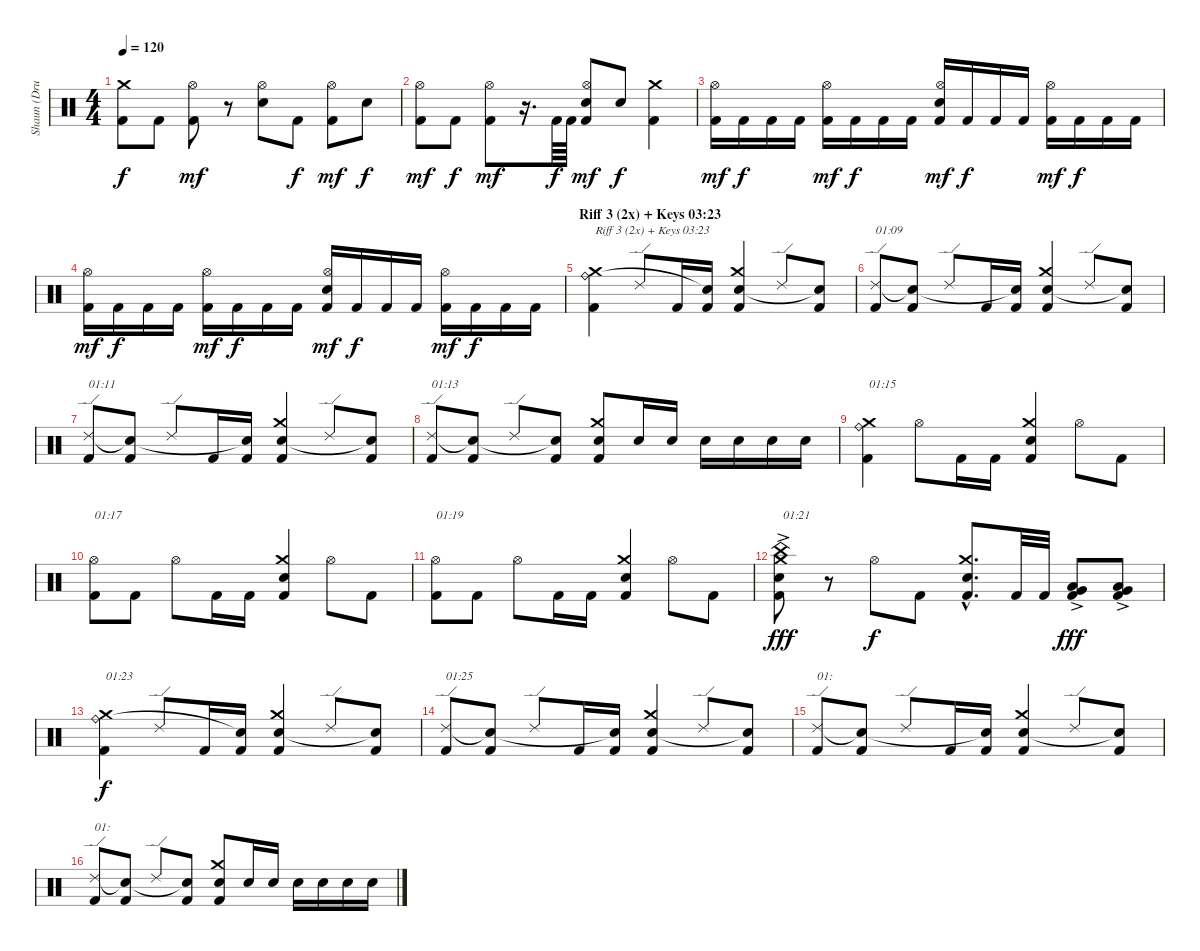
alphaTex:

\track ("Shaun (Drums Of DOOM)" "Shaun (Dru") {instrument percussion}
\staff {score}
\articulation defaults
\ts (4 4)
\tempo 120
\clef neutral
\ks c
("Kick (hit) 2" "Crash medium (hit)").8{dy f} "Kick (hit) 2".8 ("Kick (hit) 2" "Hi-Hat (open)").8{dy mf} r.8 ("Electric Snare (hit)" "Hi-Hat (open)").8 "Kick (hit) 2".8{dy f} ("Kick (hit) 2" "Hi-Hat (open)").8{dy mf} "Electric Snare (hit)".8{dy f} |
("Kick (hit) 2" "Hi-Hat (open)").8{dy mf} "Kick (hit) 2".8{dy f} ("Kick (hit) 2" "Hi-Hat (open)").8{dy mf} r.16{d} "Kick (hit) 2".64{dy f} "Kick (hit) 2".64 ("Kick (hit) 2" "Electric Snare (hit)" "Hi-Hat (open)").8{dy mf} "Electric Snare (hit)".8{dy f} ("Kick (hit) 2" "Crash medium (hit)").4 |
("Kick (hit) 2" "Hi-Hat (open)").16{dy mf} "Kick (hit) 2".16{dy f} "Kick (hit) 2".16 "Kick (hit) 2".16 ("Kick (hit) 2" "Hi-Hat (open)").16{dy mf} "Kick (hit) 2".16{dy f} "Kick (hit) 2".16 "Kick (hit) 2".16 ("Kick (hit) 2" "Electric Snare (hit)" "Hi-Hat (open)").16{dy mf} "Kick (hit) 2".16{dy f} "Kick (hit) 2".16 "Kick (hit) 2".16 ("Kick (hit) 2" "Hi-Hat (open)").16{dy mf} "Kick (hit) 2".16{dy f} "Kick (hit) 2".16 "Kick (hit) 2".16 |
("Kick (hit) 2" "Hi-Hat (open)").16{dy mf} "Kick (hit) 2".16{dy f} "Kick (hit) 2".16 "Kick (hit) 2".16 ("Kick (hit) 2" "Hi-Hat (open)").16{dy mf} "Kick (hit) 2".16{dy f} "Kick (hit) 2".16 "Kick (hit) 2".16 ("Kick (hit) 2" "Electric Snare (hit)" "Hi-Hat (open)").16{dy mf} "Kick (hit) 2".16{dy f} "Kick (hit) 2".16 "Kick (hit) 2".16 ("Kick (hit) 2" "Hi-Hat (open)").16{dy mf} "Kick (hit) 2".16{dy f} "Kick (hit) 2".16 "Kick (hit) 2".16 |
\section ("" "Riff 3 (2x) + Keys 03:23")
("Kick (hit) 2" "Ride (bell)" "Crash medium (hit)").4{txt "Riff 3 (2x) + Keys 03:23"} "Ride (edge) 2".8 "Kick (hit) 2".16 ("Kick (hit) 2" "Snare (hit)"{t}).16 ("Kick (hit) 2" "Electric Snare (hit)" "Crash medium (hit)").4 "Ride (edge) 2".8 ("Kick (hit) 2" "Snare (hit)"{t}).8 |
("Kick (hit) 2" "Ride (edge) 2").8{txt "01:09"} ("Kick (hit) 2" "Snare (hit)"{t}).8 "Ride (edge) 2".8 "Kick (hit) 2".16 ("Kick (hit) 2" "Snare (hit)"{t}).16 ("Kick (hit) 2" "Electric Snare (hit)" "Crash medium (hit)").4 "Ride (edge) 2".8 ("Kick (hit) 2" "Snare (hit)"{t}).8 |
("Kick (hit) 2" "Ride (edge) 2").8{txt "01:11"} ("Kick (hit) 2" "Snare (hit)"{t}).8 "Ride (edge) 2".8 "Kick (hit) 2".16 ("Kick (hit) 2" "Snare (hit)"{t}).16 ("Kick (hit) 2" "Electric Snare (hit)" "Crash medium (hit)").4 "Ride (edge) 2".8 ("Kick (hit) 2" "Snare (hit)"{t}).8 |
("Kick (hit) 2" "Ride (edge) 2").8{txt "01:13"} ("Kick (hit) 2" "Snare (hit)"{t}).8 "Ride (edge) 2".8 ("Kick (hit) 2" "Snare (hit)"{t}).8 ("Kick (hit) 2" "Electric Snare (hit)" "Crash medium (hit)").8 "Electric Snare (hit)".16 "Electric Snare (hit)".16 "Electric Snare (hit)".16 "Electric Snare (hit)".16 "Electric Snare (hit)".16 "Electric Snare (hit)".16 |
("Kick (hit) 2" "Ride (bell)" "Crash medium (hit)").4{txt "01:15"} "Hi-Hat (open)".8 "Kick (hit) 2".16 "Kick (hit) 2".16 ("Kick (hit) 2" "Electric Snare (hit)" "Crash medium (hit)").4 "Hi-Hat (open)".8 "Kick (hit) 2".8 |
("Kick (hit) 2" "Hi-Hat (open)").8{txt "01:17 "} "Kick (hit) 2".8 "Hi-Hat (open)".8 "Kick (hit) 2".16 "Kick (hit) 2".16 ("Kick (hit) 2" "Electric Snare (hit)" "Crash medium (hit)").4 "Hi-Hat (open)".8 "Kick (hit) 2".8 |
("Kick (hit) 2" "Hi-Hat (open)").8{txt "01:19"} "Kick (hit) 2".8 "Hi-Hat (open)".8 "Kick (hit) 2".16 "Kick (hit) 2".16 ("Kick (hit) 2" "Electric Snare (hit)" "Crash medium (hit)").4 "Hi-Hat (open)".8 "Kick (hit) 2".8 |
("Kick (hit) 2" "Electric Snare (hit)" "China (hit)"{ac} "Crash medium (hit)"{ac}).8{txt "01:21" dy fff} r.8 "Hi-Hat (open)".8{dy f} "Kick (hit) 2".8 ("Kick (hit) 2"{hac} "Electric Snare (hit)"{hac} "Crash medium (hit)"{hac}).8{d} "Kick (hit) 2".32 "Kick (hit) 2".32 ("Kick (hit) 2" "Low Floor Tom (hit)"{ac} "Very Low Tom (hit)"{ac}).8{dy fff} ("Kick (hit) 2" "Low Tom (hit)"{ac} "Very Low Tom (hit)"{ac}).8 |
("Kick (hit) 2" "Ride (bell)" "Crash medium (hit)").4{txt "01:23" dy f} "Ride (edge) 2".8 "Kick (hit) 2".16 ("Kick (hit) 2" "Snare (hit)"{t}).16 ("Kick (hit) 2" "Electric Snare (hit)" "Crash medium (hit)").4 "Ride (edge) 2".8 ("Kick (hit) 2" "Snare (hit)"{t}).8 |
("Kick (hit) 2" "Ride (edge) 2").8{txt "01:25"} ("Kick (hit) 2" "Snare (hit)"{t}).8 "Ride (edge) 2".8 "Kick (hit) 2".16 ("Kick (hit) 2" "Snare (hit)"{t}).16 ("Kick (hit) 2" "Electric Snare (hit)" "Crash medium (hit)").4 "Ride (edge) 2".8 ("Kick (hit) 2" "Snare (hit)"{t}).8 |
("Kick (hit) 2" "Ride (edge) 2").8{txt "01:"} ("Kick (hit) 2" "Snare (hit)"{t}).8 "Ride (edge) 2".8 "Kick (hit) 2".16 ("Kick (hit) 2" "Snare (hit)"{t}).16 ("Kick (hit) 2" "Electric Snare (hit)" "Crash medium (hit)").4 "Ride (edge) 2".8 ("Kick (hit) 2" "Snare (hit)"{t}).8 |
("Kick (hit) 2" "Ride (edge) 2").8{txt "01:"} ("Kick (hit) 2" "Snare (hit)"{t}).8 "Ride (edge) 2".8 ("Kick (hit) 2" "Snare (hit)"{t}).8 ("Kick (hit) 2" "Electric Snare (hit)" "Crash medium (hit)").8 "Electric Snare (hit)".16 "Electric Snare (hit)".16 "Electric Snare (hit)".16 "Electric Snare (hit)".16 "Electric Snare (hit)".16 "Electric Snare (hit)".16
